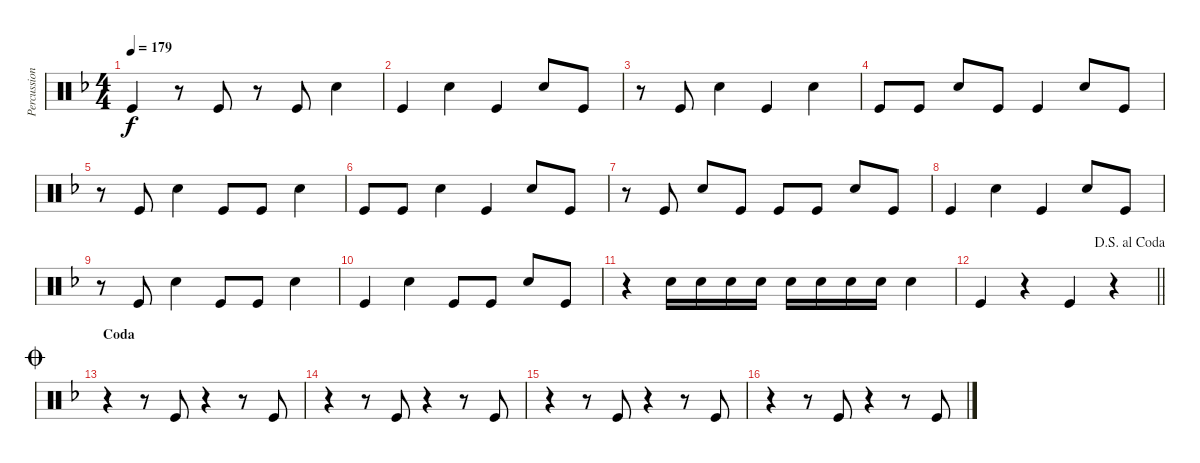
\track ("Percussion 02" "Percussion") {instrument percussion}
\staff {score}
\articulation defaults
\ts (4 4)
\tempo 179
\clef neutral
\ks dminor "Kick (hit)".4{dy f}
r.8 "Kick (hit)".8 r.8 "Kick (hit)".8 "Snare (hit) 2".4 |
"Kick (hit)".4 "Snare (hit) 2".4 "Kick (hit)".4 "Snare (hit) 2".8 "Kick (hit)".8 |
r.8 "Kick (hit)".8 "Snare (hit) 2".4 "Kick (hit)".4 "Snare (hit) 2".4 |
"Kick (hit)".8 "Kick (hit)".8 "Snare (hit) 2".8 "Kick (hit)".8 "Kick (hit)".4 "Snare (hit) 2".8 "Kick (hit)".8 |
r.8 "Kick (hit)".8 "Snare (hit) 2".4 "Kick (hit)".8 "Kick (hit)".8 "Snare (hit) 2".4 |
"Kick (hit)".8 "Kick (hit)".8 "Snare (hit) 2".4 "Kick (hit)".4 "Snare (hit) 2".8 "Kick (hit)".8 |
r.8 "Kick (hit)".8 "Snare (hit) 2".8 "Kick (hit)".8 "Kick (hit)".8 "Kick (hit)".8 "Snare (hit) 2".8 "Kick (hit)".8 |
"Kick (hit)".4 "Snare (hit) 2".4 "Kick (hit)".4 "Snare (hit) 2".8 "Kick (hit)".8 |
r.8 "Kick (hit)".8 "Snare (hit) 2".4 "Kick (hit)".8 "Kick (hit)".8 "Snare (hit) 2".4 |
"Kick (hit)".4 "Snare (hit) 2".4 "Kick (hit)".8 "Kick (hit)".8 "Snare (hit) 2".8 "Kick (hit)".8 |
r.4 "Snare (hit) 2".16 "Snare (hit) 2".16 "Snare (hit) 2".16 "Snare (hit) 2".16 "Snare (hit) 2".16 "Snare (hit) 2".16 "Snare (hit) 2".16 "Snare (hit) 2".16 "Snare (hit) 2".4 |
\jump dalsegnoalcoda
\barLineRight lightlight "Kick (hit)".4
r.4 "Kick (hit)".4 r.4 |
\section ("" "Coda")
\jump coda
r.4 r.8 "Kick (hit)".8 r.4 r.8 "Kick (hit)".8 |
r.4 r.8 "Kick (hit)".8 r.4 r.8 "Kick (hit)".8 |
r.4 r.8 "Kick (hit)".8 r.4 r.8 "Kick (hit)".8 |
r.4 r.8 "Kick (hit)".8 r.4 r.8 "Kick (hit)".8
